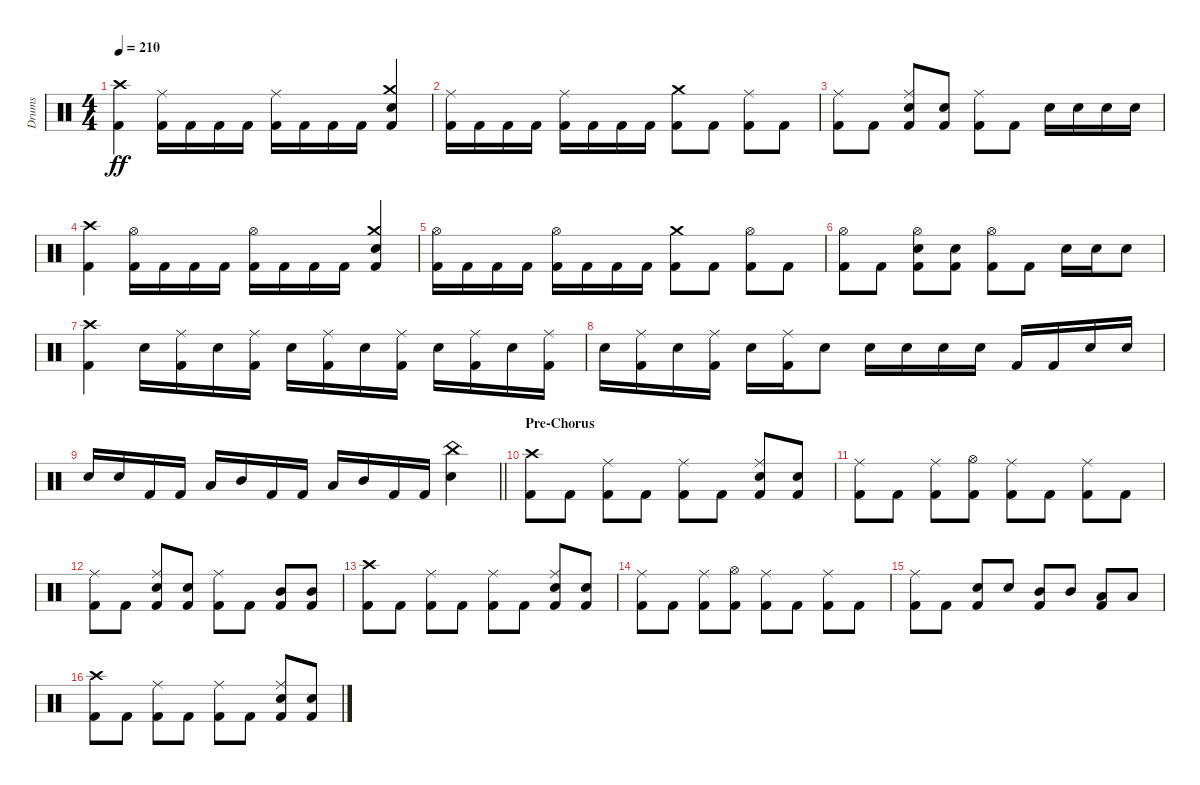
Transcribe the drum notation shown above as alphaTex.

\track ("Drums" "Drums") {instrument percussion}
\staff {score}
\articulation defaults
\ts (4 4)
\tempo 210
\clef neutral
\ks c
("Crash high (hit)" "Kick (hit) 2").4{dy ff} ("Ride (middle)" "Kick (hit) 2").16 "Kick (hit) 2".16 "Kick (hit) 2".16 "Kick (hit) 2".16 ("Ride (middle)" "Kick (hit) 2").16 "Kick (hit) 2".16 "Kick (hit) 2".16 "Kick (hit) 2".16 ("Crash medium (hit)" "Snare (hit) 2" "Kick (hit) 2").4 |
("Ride (middle)" "Kick (hit) 2").16 "Kick (hit) 2".16 "Kick (hit) 2".16 "Kick (hit) 2".16 ("Ride (middle)" "Kick (hit) 2").16 "Kick (hit) 2".16 "Kick (hit) 2".16 "Kick (hit) 2".16 ("Crash medium (hit)" "Kick (hit) 2").8 "Kick (hit) 2".8 ("Ride (middle)" "Kick (hit) 2").8 "Kick (hit) 2".8 |
("Ride (middle)" "Kick (hit) 2").8 "Kick (hit) 2".8 ("Ride (middle)" "Snare (hit) 2" "Kick (hit) 2").8 ("Snare (hit) 2" "Kick (hit) 2").8 ("Ride (middle)" "Kick (hit) 2").8 "Kick (hit) 2".8 "Snare (hit) 2".16 "Snare (hit) 2".16 "Snare (hit) 2".16 "Snare (hit) 2".16 |
("Crash high (hit)" "Kick (hit) 2").4 ("Hi-Hat (open)" "Kick (hit) 2").16 "Kick (hit) 2".16 "Kick (hit) 2".16 "Kick (hit) 2".16 ("Hi-Hat (open)" "Kick (hit) 2").16 "Kick (hit) 2".16 "Kick (hit) 2".16 "Kick (hit) 2".16 ("Crash medium (hit)" "Snare (hit) 2" "Kick (hit) 2").4 |
("Hi-Hat (open)" "Kick (hit) 2").16 "Kick (hit) 2".16 "Kick (hit) 2".16 "Kick (hit) 2".16 ("Hi-Hat (open)" "Kick (hit) 2").16 "Kick (hit) 2".16 "Kick (hit) 2".16 "Kick (hit) 2".16 ("Crash medium (hit)" "Kick (hit) 2").8 "Kick (hit) 2".8 ("Hi-Hat (open)" "Kick (hit) 2").8 "Kick (hit) 2".8 |
("Hi-Hat (open)" "Kick (hit) 2").8 "Kick (hit) 2".8 ("Hi-Hat (open)" "Snare (hit) 2" "Kick (hit) 2").8 ("Snare (hit) 2" "Kick (hit) 2").8 ("Hi-Hat (open)" "Kick (hit) 2").8 "Kick (hit) 2".8 "Snare (hit) 2".16 "Snare (hit) 2".16 "Snare (hit) 2".8 |
("Crash high (hit)" "Kick (hit) 2").4 "Snare (hit) 2".16 ("Ride (middle)" "Kick (hit) 2").16 "Snare (hit) 2".16 ("Ride (middle)" "Kick (hit) 2").16 "Snare (hit) 2".16 ("Ride (middle)" "Kick (hit) 2").16 "Snare (hit) 2".16 ("Ride (middle)" "Kick (hit) 2").16 "Snare (hit) 2".16 ("Ride (middle)" "Kick (hit) 2").16 "Snare (hit) 2".16 ("Ride (middle)" "Kick (hit) 2").16 |
"Snare (hit) 2".16 ("Ride (middle)" "Kick (hit) 2").16 "Snare (hit) 2".16 ("Ride (middle)" "Kick (hit) 2").16 "Snare (hit) 2".16 ("Ride (middle)" "Kick (hit) 2").16 "Snare (hit) 2".8 "Snare (hit) 2".16 "Snare (hit) 2".16 "Snare (hit) 2".16 "Snare (hit) 2".16 "Kick (hit) 2".16 "Kick (hit) 2".16 "Snare (hit) 2".16 "Snare (hit) 2".16 |
\barLineRight lightlight "Snare (hit) 2".16 "Snare (hit) 2".16 "Kick (hit) 2".16 "Kick (hit) 2".16 "Low Tom (hit)".16 "Mid Tom (hit)".16 "Kick (hit) 2".16 "Kick (hit) 2".16 "Low Tom (hit)".16 "Mid Tom (hit)".16 "Kick (hit) 2".16 "Kick (hit) 2".16
("China (hit)" "Snare (hit) 2").4 |
\section ("" "Pre-Chorus")
("Crash high (hit)" "Kick (hit) 2").8 "Kick (hit) 2".8 ("Ride (middle)" "Kick (hit) 2").8 "Kick (hit) 2".8 ("Ride (middle)" "Kick (hit) 2").8 "Kick (hit) 2".8 ("Ride (middle)" "Snare (hit) 2" "Kick (hit) 2").8 ("Snare (hit) 2" "Kick (hit) 2").8 |
("Ride (middle)" "Kick (hit) 2").8 "Kick (hit) 2".8 ("Ride (middle)" "Kick (hit) 2").8 ("Hi-Hat (open)" "Kick (hit) 2").8 ("Ride (middle)" "Kick (hit) 2").8 "Kick (hit) 2".8 ("Ride (middle)" "Kick (hit) 2").8 "Kick (hit) 2".8 |
("Ride (middle)" "Kick (hit) 2").8 "Kick (hit) 2".8 ("Ride (middle)" "Snare (hit) 2" "Kick (hit) 2").8 ("Snare (hit) 2" "Kick (hit) 2").8 ("Ride (middle)" "Kick (hit) 2").8 "Kick (hit) 2".8 ("Mid Tom (hit)" "Kick (hit) 2").8 ("Mid Tom (hit)" "Kick (hit) 2").8 |
("Crash high (hit)" "Kick (hit) 2").8 "Kick (hit) 2".8 ("Ride (middle)" "Kick (hit) 2").8 "Kick (hit) 2".8 ("Ride (middle)" "Kick (hit) 2").8 "Kick (hit) 2".8 ("Ride (middle)" "Snare (hit) 2" "Kick (hit) 2").8 ("Snare (hit) 2" "Kick (hit) 2").8 |
("Ride (middle)" "Kick (hit) 2").8 "Kick (hit) 2".8 ("Ride (middle)" "Kick (hit) 2").8 ("Hi-Hat (open)" "Kick (hit) 2").8 ("Ride (middle)" "Kick (hit) 2").8 "Kick (hit) 2".8 ("Ride (middle)" "Kick (hit) 2").8 "Kick (hit) 2".8 |
("Ride (middle)" "Kick (hit) 2").8 "Kick (hit) 2".8 ("Snare (hit) 2" "Kick (hit) 2").8 "Snare (hit) 2".8 ("Mid Tom (hit)" "Kick (hit) 2").8 "Mid Tom (hit)".8 ("Low Tom (hit)" "Kick (hit) 2").8 "Low Tom (hit)".8 |
("Crash high (hit)" "Kick (hit) 2").8 "Kick (hit) 2".8 ("Ride (middle)" "Kick (hit) 2").8 "Kick (hit) 2".8 ("Ride (middle)" "Kick (hit) 2").8 "Kick (hit) 2".8 ("Ride (middle)" "Snare (hit) 2" "Kick (hit) 2").8 ("Snare (hit) 2" "Kick (hit) 2").8
